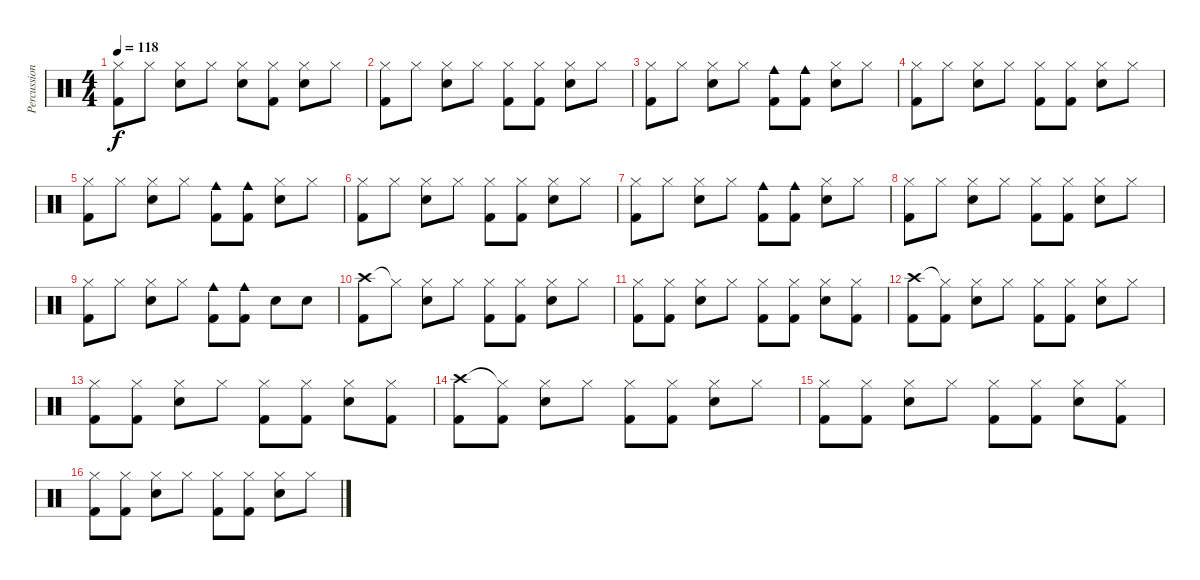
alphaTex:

\track ("Percussion" "Percussion") {instrument percussion}
\staff {score}
\articulation defaults
\ts (4 4)
\tempo 118
\clef neutral
\ks c
("Hi-Hat (closed)" "Kick (hit) 2").8{dy f} "Hi-Hat (closed)".8 ("Hi-Hat (closed)" "Snare (hit) 2").8 "Hi-Hat (closed)".8 ("Hi-Hat (closed)" "Snare (hit) 2").8 ("Hi-Hat (closed)" "Kick (hit) 2").8 ("Hi-Hat (closed)" "Snare (hit) 2").8 "Hi-Hat (closed)".8 |
("Hi-Hat (closed)" "Kick (hit) 2").8 "Hi-Hat (closed)".8 ("Hi-Hat (closed)" "Snare (hit) 2").8 "Hi-Hat (closed)".8 ("Hi-Hat (closed)" "Kick (hit) 2").8 ("Hi-Hat (closed)" "Kick (hit) 2").8 ("Hi-Hat (closed)" "Snare (hit) 2").8 "Hi-Hat (closed)".8 |
("Hi-Hat (closed)" "Kick (hit) 2").8 "Hi-Hat (closed)".8 ("Hi-Hat (closed)" "Snare (hit) 2").8 "Hi-Hat (closed)".8 ("Cowbell medium (hit)" "Kick (hit) 2").8 ("Cowbell medium (hit)" "Kick (hit) 2").8 ("Hi-Hat (closed)" "Snare (hit) 2").8 "Hi-Hat (closed)".8 |
("Hi-Hat (closed)" "Kick (hit) 2").8 "Hi-Hat (closed)".8 ("Hi-Hat (closed)" "Snare (hit) 2").8 "Hi-Hat (closed)".8 ("Hi-Hat (closed)" "Kick (hit) 2").8 ("Hi-Hat (closed)" "Kick (hit) 2").8 ("Hi-Hat (closed)" "Snare (hit) 2").8 "Hi-Hat (closed)".8 |
("Hi-Hat (closed)" "Kick (hit) 2").8 "Hi-Hat (closed)".8 ("Hi-Hat (closed)" "Snare (hit) 2").8 "Hi-Hat (closed)".8 ("Cowbell medium (hit)" "Kick (hit) 2").8 ("Cowbell medium (hit)" "Kick (hit) 2").8 ("Hi-Hat (closed)" "Snare (hit) 2").8 "Hi-Hat (closed)".8 |
("Hi-Hat (closed)" "Kick (hit) 2").8 "Hi-Hat (closed)".8 ("Hi-Hat (closed)" "Snare (hit) 2").8 "Hi-Hat (closed)".8 ("Hi-Hat (closed)" "Kick (hit) 2").8 ("Hi-Hat (closed)" "Kick (hit) 2").8 ("Hi-Hat (closed)" "Snare (hit) 2").8 "Hi-Hat (closed)".8 |
("Hi-Hat (closed)" "Kick (hit) 2").8 "Hi-Hat (closed)".8 ("Hi-Hat (closed)" "Snare (hit) 2").8 "Hi-Hat (closed)".8 ("Cowbell medium (hit)" "Kick (hit) 2").8 ("Cowbell medium (hit)" "Kick (hit) 2").8 ("Hi-Hat (closed)" "Snare (hit) 2").8 "Hi-Hat (closed)".8 |
("Hi-Hat (closed)" "Kick (hit) 2").8 "Hi-Hat (closed)".8 ("Hi-Hat (closed)" "Snare (hit) 2").8 "Hi-Hat (closed)".8 ("Hi-Hat (closed)" "Kick (hit) 2").8 ("Hi-Hat (closed)" "Kick (hit) 2").8 ("Hi-Hat (closed)" "Snare (hit) 2").8 "Hi-Hat (closed)".8 |
("Hi-Hat (closed)" "Kick (hit) 2").8 "Hi-Hat (closed)".8 ("Hi-Hat (closed)" "Snare (hit) 2").8 "Hi-Hat (closed)".8 ("Cowbell medium (hit)" "Kick (hit) 2").8 ("Cowbell medium (hit)" "Kick (hit) 2").8 "Snare (hit) 2".8 "Snare (hit) 2".8 |
("Crash high (hit)" "Kick (hit) 2").8 "Hi-Hat (closed)"{t}.8 ("Hi-Hat (closed)" "Snare (hit) 2").8 "Hi-Hat (closed)".8 ("Hi-Hat (closed)" "Kick (hit) 2").8 ("Hi-Hat (closed)" "Kick (hit) 2").8 ("Hi-Hat (closed)" "Snare (hit) 2").8 "Hi-Hat (closed)".8 |
("Hi-Hat (closed)" "Kick (hit) 2").8 ("Hi-Hat (closed)" "Kick (hit) 2").8 ("Hi-Hat (closed)" "Snare (hit) 2").8 "Hi-Hat (closed)".8 ("Hi-Hat (closed)" "Kick (hit) 2").8 ("Hi-Hat (closed)" "Kick (hit) 2").8 ("Hi-Hat (closed)" "Snare (hit) 2").8 ("Hi-Hat (closed)" "Kick (hit) 2").8 |
("Crash high (hit)" "Kick (hit) 2").8 ("Hi-Hat (closed)"{t} "Kick (hit) 2").8 ("Hi-Hat (closed)" "Snare (hit) 2").8 "Hi-Hat (closed)".8 ("Hi-Hat (closed)" "Kick (hit) 2").8 ("Hi-Hat (closed)" "Kick (hit) 2").8 ("Hi-Hat (closed)" "Snare (hit) 2").8 "Hi-Hat (closed)".8 |
("Hi-Hat (closed)" "Kick (hit) 2").8 ("Hi-Hat (closed)" "Kick (hit) 2").8 ("Hi-Hat (closed)" "Snare (hit) 2").8 "Hi-Hat (closed)".8 ("Hi-Hat (closed)" "Kick (hit) 2").8 ("Hi-Hat (closed)" "Kick (hit) 2").8 ("Hi-Hat (closed)" "Snare (hit) 2").8 ("Hi-Hat (closed)" "Kick (hit) 2").8 |
("Crash high (hit)" "Kick (hit) 2").8 ("Hi-Hat (closed)"{t} "Kick (hit) 2").8 ("Hi-Hat (closed)" "Snare (hit) 2").8 "Hi-Hat (closed)".8 ("Hi-Hat (closed)" "Kick (hit) 2").8 ("Hi-Hat (closed)" "Kick (hit) 2").8 ("Hi-Hat (closed)" "Snare (hit) 2").8 "Hi-Hat (closed)".8 |
("Hi-Hat (closed)" "Kick (hit) 2").8 ("Hi-Hat (closed)" "Kick (hit) 2").8 ("Hi-Hat (closed)" "Snare (hit) 2").8 "Hi-Hat (closed)".8 ("Hi-Hat (closed)" "Kick (hit) 2").8 ("Hi-Hat (closed)" "Kick (hit) 2").8 ("Hi-Hat (closed)" "Snare (hit) 2").8 ("Hi-Hat (closed)" "Kick (hit) 2").8 |
("Hi-Hat (closed)" "Kick (hit) 2").8 ("Hi-Hat (closed)" "Kick (hit) 2").8 ("Hi-Hat (closed)" "Snare (hit) 2").8 "Hi-Hat (closed)".8 ("Hi-Hat (closed)" "Kick (hit) 2").8 ("Hi-Hat (closed)" "Kick (hit) 2").8 ("Hi-Hat (closed)" "Snare (hit) 2").8 "Hi-Hat (closed)".8
